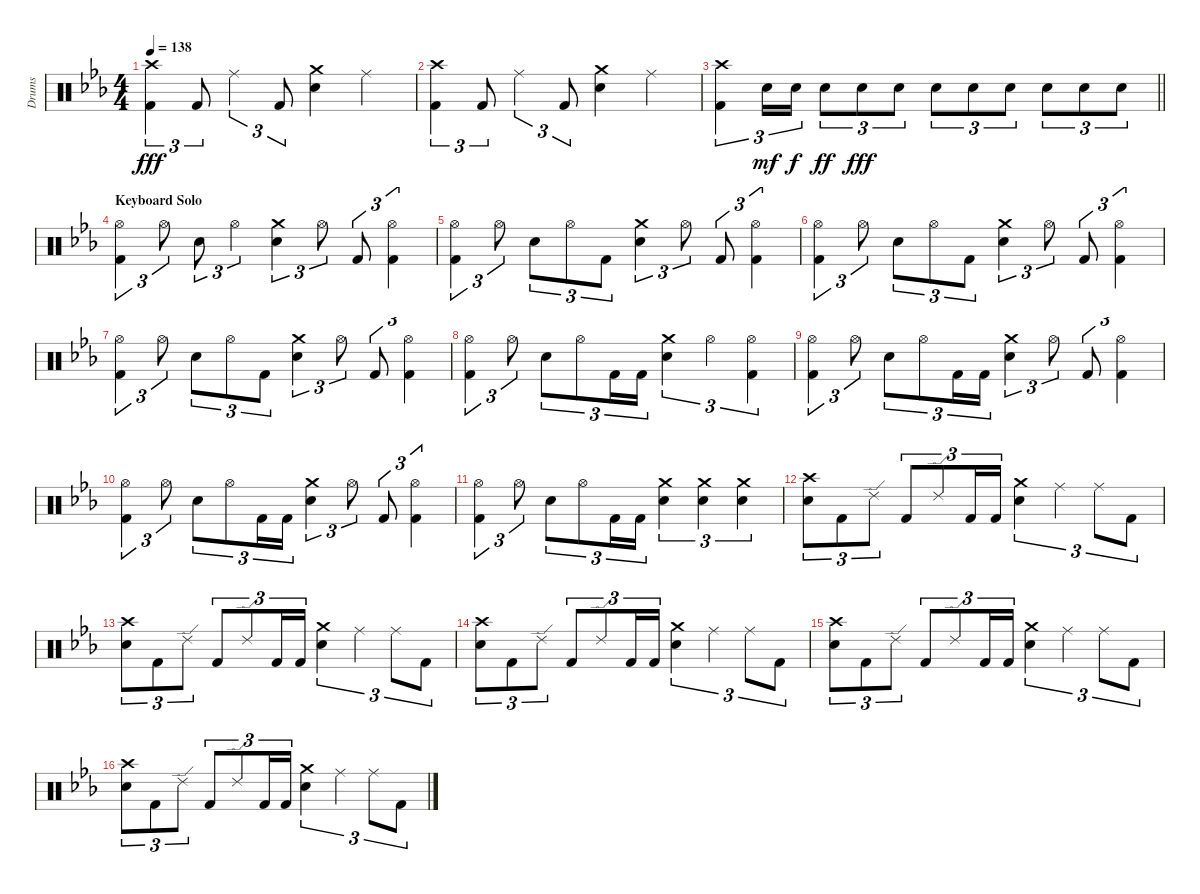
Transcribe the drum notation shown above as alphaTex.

\track ("Drums" "Drums") {instrument percussion}
\staff {score}
\articulation defaults
\ts (4 4)
\tempo 138
\clef neutral
\ks eb
("Crash high (hit)" "Kick (hit) 2").4{tu (3 2) dy fff} "Kick (hit) 2".8{tu (3 2)} "Ride (middle)".4{tu (3 2)} "Kick (hit) 2".8{tu (3 2)} ("Crash medium (hit)" "Snare (hit) 2").4 "Ride (middle)".4 |
("Crash high (hit)" "Kick (hit) 2").4{tu (3 2)} "Kick (hit) 2".8{tu (3 2)} "Ride (middle)".4{tu (3 2)} "Kick (hit) 2".8{tu (3 2)} ("Crash medium (hit)" "Snare (hit) 2").4 "Ride (middle)".4 |
\barLineRight lightlight
("Crash high (hit)" "Kick (hit) 2").4{tu (3 2)} "Snare (hit) 2".16{tu (3 2) dy mf} "Snare (hit) 2".16{tu (3 2) dy f} "Snare (hit) 2".8{tu (3 2) dy ff} "Snare (hit) 2".8{tu (3 2) dy fff} "Snare (hit) 2".8{tu (3 2)} "Snare (hit) 2".8{tu (3 2)} "Snare (hit) 2".8{tu (3 2)} "Snare (hit) 2".8{tu (3 2)} "Snare (hit) 2".8{tu (3 2)} "Snare (hit) 2".8{tu (3 2)} "Snare (hit) 2".8{tu (3 2)} |
\section ("" "Keyboard Solo")
("Hi-Hat (open)" "Kick (hit) 2").4{tu (3 2)} "Hi-Hat (open)".8{tu (3 2)} "Snare (hit) 2".8{tu (3 2)} "Hi-Hat (open)".4{tu (3 2)} ("Crash medium (hit)" "Snare (hit) 2").4{tu (3 2)} "Hi-Hat (open)".8{tu (3 2)} "Kick (hit) 2".8{tu (3 2)} ("Hi-Hat (open)" "Kick (hit) 2").4{tu (3 2)} |
("Hi-Hat (open)" "Kick (hit) 2").4{tu (3 2)} "Hi-Hat (open)".8{tu (3 2)} "Snare (hit) 2".8{tu (3 2)} "Hi-Hat (open)".8{tu (3 2)} "Kick (hit) 2".8{tu (3 2)} ("Crash medium (hit)" "Snare (hit) 2").4{tu (3 2)} "Hi-Hat (open)".8{tu (3 2)} "Kick (hit) 2".8{tu (3 2)} ("Hi-Hat (open)" "Kick (hit) 2").4{tu (3 2)} |
("Hi-Hat (open)" "Kick (hit) 2").4{tu (3 2)} "Hi-Hat (open)".8{tu (3 2)} "Snare (hit) 2".8{tu (3 2)} "Hi-Hat (open)".8{tu (3 2)} "Kick (hit) 2".8{tu (3 2)} ("Crash medium (hit)" "Snare (hit) 2").4{tu (3 2)} "Hi-Hat (open)".8{tu (3 2)} "Kick (hit) 2".8{tu (3 2)} ("Hi-Hat (open)" "Kick (hit) 2").4{tu (3 2)} |
("Hi-Hat (open)" "Kick (hit) 2").4{tu (3 2)} "Hi-Hat (open)".8{tu (3 2)} "Snare (hit) 2".8{tu (3 2)} "Hi-Hat (open)".8{tu (3 2)} "Kick (hit) 2".8{tu (3 2)} ("Crash medium (hit)" "Snare (hit) 2").4{tu (3 2)} "Hi-Hat (open)".8{tu (3 2)} "Kick (hit) 2".8{tu (3 2)} ("Hi-Hat (open)" "Kick (hit) 2").4{tu (3 2)} |
("Hi-Hat (open)" "Kick (hit) 2").4{tu (3 2)} "Hi-Hat (open)".8{tu (3 2)} "Snare (hit) 2".8{tu (3 2)} "Hi-Hat (open)".8{tu (3 2)} "Kick (hit) 2".16{tu (3 2)} "Kick (hit) 2".16{tu (3 2)} ("Crash medium (hit)" "Snare (hit) 2").4{tu (3 2)} "Hi-Hat (open)".4{tu (3 2)} ("Hi-Hat (open)" "Kick (hit) 2").4{tu (3 2)} |
("Hi-Hat (open)" "Kick (hit) 2").4{tu (3 2)} "Hi-Hat (open)".8{tu (3 2)} "Snare (hit) 2".8{tu (3 2)} "Hi-Hat (open)".8{tu (3 2)} "Kick (hit) 2".16{tu (3 2)} "Kick (hit) 2".16{tu (3 2)} ("Crash medium (hit)" "Snare (hit) 2").4{tu (3 2)} "Hi-Hat (open)".8{tu (3 2)} "Kick (hit) 2".8{tu (3 2)} ("Hi-Hat (open)" "Kick (hit) 2").4{tu (3 2)} |
("Hi-Hat (open)" "Kick (hit) 2").4{tu (3 2)} "Hi-Hat (open)".8{tu (3 2)} "Snare (hit) 2".8{tu (3 2)} "Hi-Hat (open)".8{tu (3 2)} "Kick (hit) 2".16{tu (3 2)} "Kick (hit) 2".16{tu (3 2)} ("Crash medium (hit)" "Snare (hit) 2").4{tu (3 2)} "Hi-Hat (open)".8{tu (3 2)} "Kick (hit) 2".8{tu (3 2)} ("Hi-Hat (open)" "Kick (hit) 2").4{tu (3 2)} |
("Hi-Hat (open)" "Kick (hit) 2").4{tu (3 2)} "Hi-Hat (open)".8{tu (3 2)} "Snare (hit) 2".8{tu (3 2)} "Hi-Hat (open)".8{tu (3 2)} "Kick (hit) 2".16{tu (3 2)} "Kick (hit) 2".16{tu (3 2)} ("Crash medium (hit)" "Snare (hit) 2").4{tu (3 2)} ("Crash medium (hit)" "Snare (hit) 2").4{tu (3 2)} ("Crash medium (hit)" "Snare (hit) 2").4{tu (3 2)} |
("Crash high (hit)" "Snare (hit) 2").8{tu (3 2)} "Kick (hit) 2".8{tu (3 2)} "Ride (edge) 2".8{tu (3 2)} "Kick (hit) 2".8{tu (3 2)} "Ride (edge) 2".8{tu (3 2)} "Kick (hit) 2".16{tu (3 2)} "Kick (hit) 2".16{tu (3 2)} ("Crash medium (hit)" "Snare (hit) 2").4{tu (3 2)} "Ride (middle)".4{tu (3 2)} "Ride (middle)".8{tu (3 2)} "Kick (hit) 2".8{tu (3 2)} |
("Crash high (hit)" "Snare (hit) 2").8{tu (3 2)} "Kick (hit) 2".8{tu (3 2)} "Ride (edge) 2".8{tu (3 2)} "Kick (hit) 2".8{tu (3 2)} "Ride (edge) 2".8{tu (3 2)} "Kick (hit) 2".16{tu (3 2)} "Kick (hit) 2".16{tu (3 2)} ("Crash medium (hit)" "Snare (hit) 2").4{tu (3 2)} "Ride (middle)".4{tu (3 2)} "Ride (middle)".8{tu (3 2)} "Kick (hit) 2".8{tu (3 2)} |
("Crash high (hit)" "Snare (hit) 2").8{tu (3 2)} "Kick (hit) 2".8{tu (3 2)} "Ride (edge) 2".8{tu (3 2)} "Kick (hit) 2".8{tu (3 2)} "Ride (edge) 2".8{tu (3 2)} "Kick (hit) 2".16{tu (3 2)} "Kick (hit) 2".16{tu (3 2)} ("Crash medium (hit)" "Snare (hit) 2").4{tu (3 2)} "Ride (middle)".4{tu (3 2)} "Ride (middle)".8{tu (3 2)} "Kick (hit) 2".8{tu (3 2)} |
("Crash high (hit)" "Snare (hit) 2").8{tu (3 2)} "Kick (hit) 2".8{tu (3 2)} "Ride (edge) 2".8{tu (3 2)} "Kick (hit) 2".8{tu (3 2)} "Ride (edge) 2".8{tu (3 2)} "Kick (hit) 2".16{tu (3 2)} "Kick (hit) 2".16{tu (3 2)} ("Crash medium (hit)" "Snare (hit) 2").4{tu (3 2)} "Ride (middle)".4{tu (3 2)} "Ride (middle)".8{tu (3 2)} "Kick (hit) 2".8{tu (3 2)} |
("Crash high (hit)" "Snare (hit) 2").8{tu (3 2)} "Kick (hit) 2".8{tu (3 2)} "Ride (edge) 2".8{tu (3 2)} "Kick (hit) 2".8{tu (3 2)} "Ride (edge) 2".8{tu (3 2)} "Kick (hit) 2".16{tu (3 2)} "Kick (hit) 2".16{tu (3 2)} ("Crash medium (hit)" "Snare (hit) 2").4{tu (3 2)} "Ride (middle)".4{tu (3 2)} "Ride (middle)".8{tu (3 2)} "Kick (hit) 2".8{tu (3 2)}
